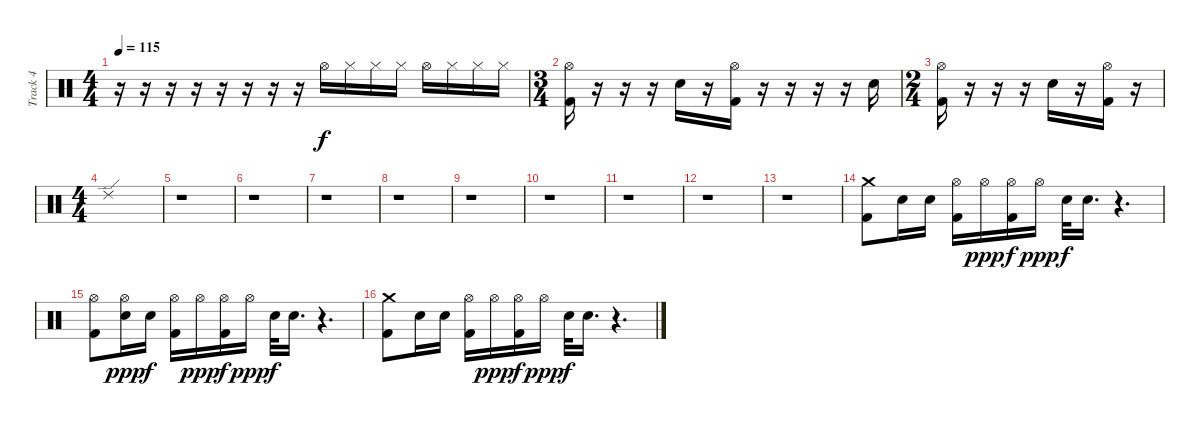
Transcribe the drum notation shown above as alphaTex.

\track ("Track 4" "Track 4") {instrument percussion}
\staff {score}
\articulation defaults
\ts (4 4)
\tempo 115
\clef neutral
\ks c
r.16{dy f} r.16 r.16 r.16 r.16 r.16 r.16 r.16 "Hi-Hat (open)".16 "Hi-Hat (closed)".16 "Hi-Hat (closed)".16 "Hi-Hat (closed)".16 "Hi-Hat (open)".16 "Hi-Hat (closed)".16 "Hi-Hat (closed)".16 "Hi-Hat (closed)".16 |
\ts (3 4)
("Hi-Hat (open)" "Kick (hit) 2").16 r.16 r.16 r.16 "Electric Snare (hit)".16 r.16 ("Hi-Hat (open)" "Kick (hit) 2").16 r.16 r.16 r.16 r.16 "Electric Snare (hit)".16 |
\ts (2 4)
("Hi-Hat (open)" "Kick (hit) 2").16 r.16 r.16 r.16 "Electric Snare (hit)".16 r.16 ("Hi-Hat (open)" "Kick (hit) 2").16 r.16 |
\ts (4 4)
"Ride (edge) 2".1 |
r.1 |
r.1 |
r.1 |
r.1 |
r.1 |
r.1 |
r.1 |
r.1 |
r.1 |
("Crash medium (hit)" "Kick (hit) 2").8 "Electric Snare (hit)".16 "Electric Snare (hit)".16 ("Hi-Hat (open)" "Kick (hit) 2").16 "Hi-Hat (open)".16{dy ppp} ("Hi-Hat (open)" "Kick (hit) 2").16{dy f} "Hi-Hat (open)".16{dy ppp} "Electric Snare (hit)".32{dy f} "Electric Snare (hit)".16{d} r.4{d} |
("Hi-Hat (open)" "Kick (hit) 2").8 ("Hi-Hat (open)" "Electric Snare (hit)").16{dy ppp} "Electric Snare (hit)".16{dy f} ("Hi-Hat (open)" "Kick (hit) 2").16 "Hi-Hat (open)".16{dy ppp} ("Hi-Hat (open)" "Kick (hit) 2").16{dy f} "Hi-Hat (open)".16{dy ppp} "Electric Snare (hit)".32{dy f} "Electric Snare (hit)".16{d} r.4{d} |
("Crash medium (hit)" "Kick (hit) 2").8 "Electric Snare (hit)".16 "Electric Snare (hit)".16 ("Hi-Hat (open)" "Kick (hit) 2").16 "Hi-Hat (open)".16{dy ppp} ("Hi-Hat (open)" "Kick (hit) 2").16{dy f} "Hi-Hat (open)".16{dy ppp} "Electric Snare (hit)".32{dy f} "Electric Snare (hit)".16{d} r.4{d}
